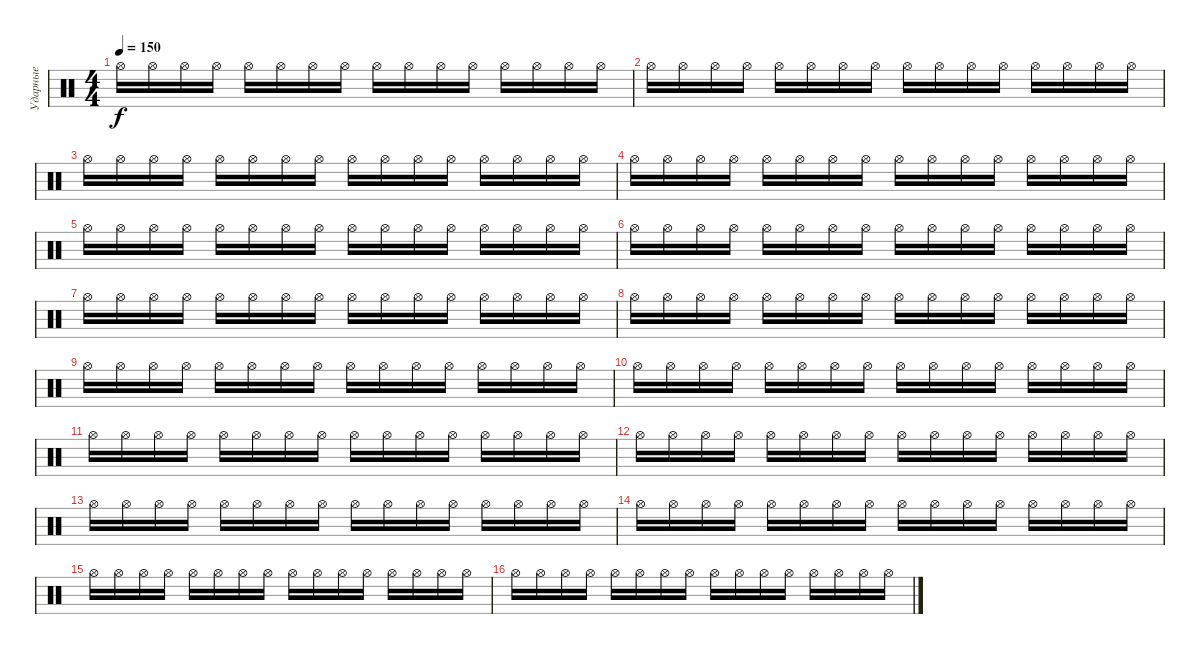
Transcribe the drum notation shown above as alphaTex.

\track ("Ударные" "Ударные") {instrument percussion}
\staff {score}
\articulation defaults
\ts (4 4)
\tempo 150
\clef neutral
\ks c "Hi-Hat (open)".16{dy f} "Hi-Hat (open)".16 "Hi-Hat (open)".16 "Hi-Hat (open)".16 "Hi-Hat (open)".16 "Hi-Hat (open)".16 "Hi-Hat (open)".16 "Hi-Hat (open)".16 "Hi-Hat (open)".16 "Hi-Hat (open)".16 "Hi-Hat (open)".16 "Hi-Hat (open)".16 "Hi-Hat (open)".16 "Hi-Hat (open)".16 "Hi-Hat (open)".16 "Hi-Hat (open)".16
|
"Hi-Hat (open)".16 "Hi-Hat (open)".16 "Hi-Hat (open)".16 "Hi-Hat (open)".16 "Hi-Hat (open)".16 "Hi-Hat (open)".16 "Hi-Hat (open)".16 "Hi-Hat (open)".16 "Hi-Hat (open)".16 "Hi-Hat (open)".16 "Hi-Hat (open)".16 "Hi-Hat (open)".16 "Hi-Hat (open)".16 "Hi-Hat (open)".16 "Hi-Hat (open)".16 "Hi-Hat (open)".16 |
"Hi-Hat (open)".16 "Hi-Hat (open)".16 "Hi-Hat (open)".16 "Hi-Hat (open)".16 "Hi-Hat (open)".16 "Hi-Hat (open)".16 "Hi-Hat (open)".16 "Hi-Hat (open)".16 "Hi-Hat (open)".16 "Hi-Hat (open)".16 "Hi-Hat (open)".16 "Hi-Hat (open)".16 "Hi-Hat (open)".16 "Hi-Hat (open)".16 "Hi-Hat (open)".16 "Hi-Hat (open)".16 |
"Hi-Hat (open)".16 "Hi-Hat (open)".16 "Hi-Hat (open)".16 "Hi-Hat (open)".16 "Hi-Hat (open)".16 "Hi-Hat (open)".16 "Hi-Hat (open)".16 "Hi-Hat (open)".16 "Hi-Hat (open)".16 "Hi-Hat (open)".16 "Hi-Hat (open)".16 "Hi-Hat (open)".16 "Hi-Hat (open)".16 "Hi-Hat (open)".16 "Hi-Hat (open)".16 "Hi-Hat (open)".16 |
"Hi-Hat (open)".16 "Hi-Hat (open)".16 "Hi-Hat (open)".16 "Hi-Hat (open)".16 "Hi-Hat (open)".16 "Hi-Hat (open)".16 "Hi-Hat (open)".16 "Hi-Hat (open)".16 "Hi-Hat (open)".16 "Hi-Hat (open)".16 "Hi-Hat (open)".16 "Hi-Hat (open)".16 "Hi-Hat (open)".16 "Hi-Hat (open)".16 "Hi-Hat (open)".16 "Hi-Hat (open)".16 |
"Hi-Hat (open)".16 "Hi-Hat (open)".16 "Hi-Hat (open)".16 "Hi-Hat (open)".16 "Hi-Hat (open)".16 "Hi-Hat (open)".16 "Hi-Hat (open)".16 "Hi-Hat (open)".16 "Hi-Hat (open)".16 "Hi-Hat (open)".16 "Hi-Hat (open)".16 "Hi-Hat (open)".16 "Hi-Hat (open)".16 "Hi-Hat (open)".16 "Hi-Hat (open)".16 "Hi-Hat (open)".16 |
"Hi-Hat (open)".16 "Hi-Hat (open)".16 "Hi-Hat (open)".16 "Hi-Hat (open)".16 "Hi-Hat (open)".16 "Hi-Hat (open)".16 "Hi-Hat (open)".16 "Hi-Hat (open)".16 "Hi-Hat (open)".16 "Hi-Hat (open)".16 "Hi-Hat (open)".16 "Hi-Hat (open)".16 "Hi-Hat (open)".16 "Hi-Hat (open)".16 "Hi-Hat (open)".16 "Hi-Hat (open)".16 |
"Hi-Hat (open)".16 "Hi-Hat (open)".16 "Hi-Hat (open)".16 "Hi-Hat (open)".16 "Hi-Hat (open)".16 "Hi-Hat (open)".16 "Hi-Hat (open)".16 "Hi-Hat (open)".16 "Hi-Hat (open)".16 "Hi-Hat (open)".16 "Hi-Hat (open)".16 "Hi-Hat (open)".16 "Hi-Hat (open)".16 "Hi-Hat (open)".16 "Hi-Hat (open)".16 "Hi-Hat (open)".16 |
"Hi-Hat (open)".16 "Hi-Hat (open)".16 "Hi-Hat (open)".16 "Hi-Hat (open)".16 "Hi-Hat (open)".16 "Hi-Hat (open)".16 "Hi-Hat (open)".16 "Hi-Hat (open)".16 "Hi-Hat (open)".16 "Hi-Hat (open)".16 "Hi-Hat (open)".16 "Hi-Hat (open)".16 "Hi-Hat (open)".16 "Hi-Hat (open)".16 "Hi-Hat (open)".16 "Hi-Hat (open)".16 |
"Hi-Hat (open)".16 "Hi-Hat (open)".16 "Hi-Hat (open)".16 "Hi-Hat (open)".16 "Hi-Hat (open)".16 "Hi-Hat (open)".16 "Hi-Hat (open)".16 "Hi-Hat (open)".16 "Hi-Hat (open)".16 "Hi-Hat (open)".16 "Hi-Hat (open)".16 "Hi-Hat (open)".16 "Hi-Hat (open)".16 "Hi-Hat (open)".16 "Hi-Hat (open)".16 "Hi-Hat (open)".16 |
"Hi-Hat (open)".16 "Hi-Hat (open)".16 "Hi-Hat (open)".16 "Hi-Hat (open)".16 "Hi-Hat (open)".16 "Hi-Hat (open)".16 "Hi-Hat (open)".16 "Hi-Hat (open)".16 "Hi-Hat (open)".16 "Hi-Hat (open)".16 "Hi-Hat (open)".16 "Hi-Hat (open)".16 "Hi-Hat (open)".16 "Hi-Hat (open)".16 "Hi-Hat (open)".16 "Hi-Hat (open)".16 |
"Hi-Hat (open)".16 "Hi-Hat (open)".16 "Hi-Hat (open)".16 "Hi-Hat (open)".16 "Hi-Hat (open)".16 "Hi-Hat (open)".16 "Hi-Hat (open)".16 "Hi-Hat (open)".16 "Hi-Hat (open)".16 "Hi-Hat (open)".16 "Hi-Hat (open)".16 "Hi-Hat (open)".16 "Hi-Hat (open)".16 "Hi-Hat (open)".16 "Hi-Hat (open)".16 "Hi-Hat (open)".16 |
"Hi-Hat (open)".16 "Hi-Hat (open)".16 "Hi-Hat (open)".16 "Hi-Hat (open)".16 "Hi-Hat (open)".16 "Hi-Hat (open)".16 "Hi-Hat (open)".16 "Hi-Hat (open)".16 "Hi-Hat (open)".16 "Hi-Hat (open)".16 "Hi-Hat (open)".16 "Hi-Hat (open)".16 "Hi-Hat (open)".16 "Hi-Hat (open)".16 "Hi-Hat (open)".16 "Hi-Hat (open)".16 |
"Hi-Hat (open)".16 "Hi-Hat (open)".16 "Hi-Hat (open)".16 "Hi-Hat (open)".16 "Hi-Hat (open)".16 "Hi-Hat (open)".16 "Hi-Hat (open)".16 "Hi-Hat (open)".16 "Hi-Hat (open)".16 "Hi-Hat (open)".16 "Hi-Hat (open)".16 "Hi-Hat (open)".16 "Hi-Hat (open)".16 "Hi-Hat (open)".16 "Hi-Hat (open)".16 "Hi-Hat (open)".16 |
"Hi-Hat (open)".16 "Hi-Hat (open)".16 "Hi-Hat (open)".16 "Hi-Hat (open)".16 "Hi-Hat (open)".16 "Hi-Hat (open)".16 "Hi-Hat (open)".16 "Hi-Hat (open)".16 "Hi-Hat (open)".16 "Hi-Hat (open)".16 "Hi-Hat (open)".16 "Hi-Hat (open)".16 "Hi-Hat (open)".16 "Hi-Hat (open)".16 "Hi-Hat (open)".16 "Hi-Hat (open)".16 |
"Hi-Hat (open)".16 "Hi-Hat (open)".16 "Hi-Hat (open)".16 "Hi-Hat (open)".16 "Hi-Hat (open)".16 "Hi-Hat (open)".16 "Hi-Hat (open)".16 "Hi-Hat (open)".16 "Hi-Hat (open)".16 "Hi-Hat (open)".16 "Hi-Hat (open)".16 "Hi-Hat (open)".16 "Hi-Hat (open)".16 "Hi-Hat (open)".16 "Hi-Hat (open)".16 "Hi-Hat (open)".16
